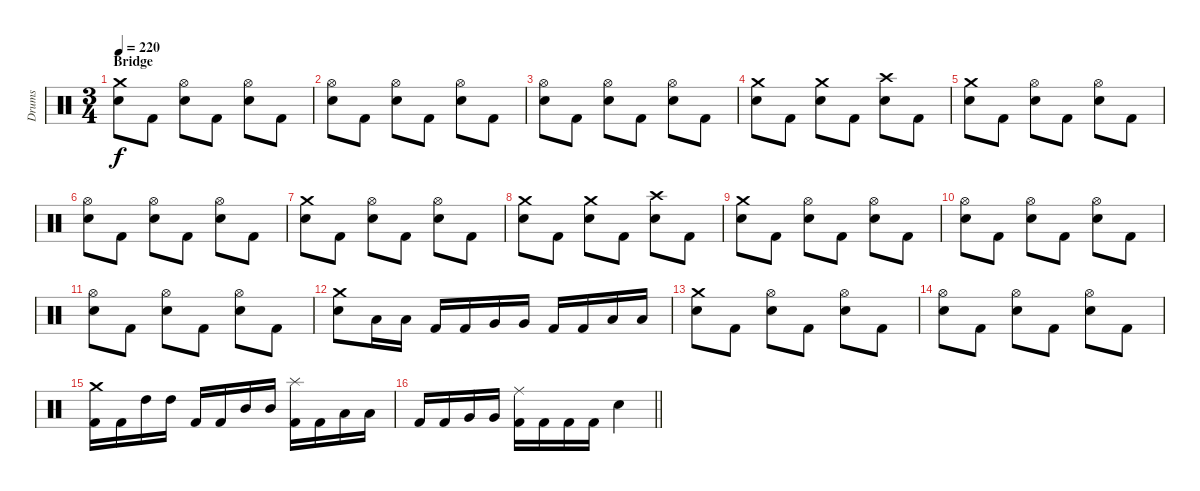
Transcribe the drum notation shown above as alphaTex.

\track ("Drums" "Drums") {instrument percussion}
\staff {score}
\articulation defaults
\ts (3 4)
\section ("" "Bridge")
\tempo 220
\clef neutral
\ks c
("Crash medium (hit)" "Electric Snare (hit)").8{dy f} "Kick (hit) 2".8 ("Hi-Hat (open)" "Electric Snare (hit)").8 "Kick (hit) 2".8 ("Hi-Hat (open)" "Electric Snare (hit)").8 "Kick (hit) 2".8 |
("Hi-Hat (open)" "Electric Snare (hit)").8 "Kick (hit) 2".8 ("Hi-Hat (open)" "Electric Snare (hit)").8 "Kick (hit) 2".8 ("Hi-Hat (open)" "Electric Snare (hit)").8 "Kick (hit) 2".8 |
("Hi-Hat (open)" "Electric Snare (hit)").8 "Kick (hit) 2".8 ("Hi-Hat (open)" "Electric Snare (hit)").8 "Kick (hit) 2".8 ("Hi-Hat (open)" "Electric Snare (hit)").8 "Kick (hit) 2".8 |
("Crash medium (hit)" "Electric Snare (hit)").8 "Kick (hit) 2".8 ("Crash medium (hit)" "Electric Snare (hit)").8 "Kick (hit) 2".8 ("Crash high (hit)" "Electric Snare (hit)").8 "Kick (hit) 2".8 |
("Crash medium (hit)" "Electric Snare (hit)").8 "Kick (hit) 2".8 ("Hi-Hat (open)" "Electric Snare (hit)").8 "Kick (hit) 2".8 ("Hi-Hat (open)" "Electric Snare (hit)").8 "Kick (hit) 2".8 |
("Hi-Hat (open)" "Electric Snare (hit)").8 "Kick (hit) 2".8 ("Hi-Hat (open)" "Electric Snare (hit)").8 "Kick (hit) 2".8 ("Hi-Hat (open)" "Electric Snare (hit)").8 "Kick (hit) 2".8 |
("Crash medium (hit)" "Electric Snare (hit)").8 "Kick (hit) 2".8 ("Hi-Hat (open)" "Electric Snare (hit)").8 "Kick (hit) 2".8 ("Hi-Hat (open)" "Electric Snare (hit)").8 "Kick (hit) 2".8 |
("Crash medium (hit)" "Electric Snare (hit)").8 "Kick (hit) 2".8 ("Crash medium (hit)" "Electric Snare (hit)").8 "Kick (hit) 2".8 ("Crash high (hit)" "Electric Snare (hit)").8 "Kick (hit) 2".8 |
("Crash medium (hit)" "Electric Snare (hit)").8 "Kick (hit) 2".8 ("Hi-Hat (open)" "Electric Snare (hit)").8 "Kick (hit) 2".8 ("Hi-Hat (open)" "Electric Snare (hit)").8 "Kick (hit) 2".8 |
("Hi-Hat (open)" "Electric Snare (hit)").8 "Kick (hit) 2".8 ("Hi-Hat (open)" "Electric Snare (hit)").8 "Kick (hit) 2".8 ("Hi-Hat (open)" "Electric Snare (hit)").8 "Kick (hit) 2".8 |
("Hi-Hat (open)" "Electric Snare (hit)").8 "Kick (hit) 2".8 ("Hi-Hat (open)" "Electric Snare (hit)").8 "Kick (hit) 2".8 ("Hi-Hat (open)" "Electric Snare (hit)").8 "Kick (hit) 2".8 |
("Crash medium (hit)" "Electric Snare (hit)").8 "Low Tom (hit)".16 "Low Tom (hit)".16 "Kick (hit) 2".16 "Kick (hit) 2".16 "Very Low Tom (hit)".16 "Very Low Tom (hit)".16 "Kick (hit) 2".16 "Kick (hit) 2".16 "Low Floor Tom (hit)".16 "Low Floor Tom (hit)".16 |
("Crash medium (hit)" "Electric Snare (hit)").8 "Kick (hit) 2".8 ("Hi-Hat (open)" "Electric Snare (hit)").8 "Kick (hit) 2".8 ("Hi-Hat (open)" "Electric Snare (hit)").8 "Kick (hit) 2".8 |
("Hi-Hat (open)" "Electric Snare (hit)").8 "Kick (hit) 2".8 ("Hi-Hat (open)" "Electric Snare (hit)").8 "Kick (hit) 2".8 ("Hi-Hat (open)" "Electric Snare (hit)").8 "Kick (hit) 2".8 |
("Crash medium (hit)" "Kick (hit) 2").16 "Kick (hit) 2".16 "High Tom (hit)".16 "High Tom (hit)".16 "Kick (hit) 2".16 "Kick (hit) 2".16 "Mid Tom (hit)".16 "Mid Tom (hit)".16 ("Splash (hit)" "Kick (hit) 2").16 "Kick (hit) 2".16 "Low Tom (hit)".16 "Low Tom (hit)".16 |
\barLineRight lightlight "Kick (hit) 2".16 "Kick (hit) 2".16 "Very Low Tom (hit)".16 "Very Low Tom (hit)".16
("Ride (middle)" "Kick (hit) 2").16 "Kick (hit) 2".16 "Kick (hit) 2".16 "Kick (hit) 2".16 "Electric Snare (hit)".4
